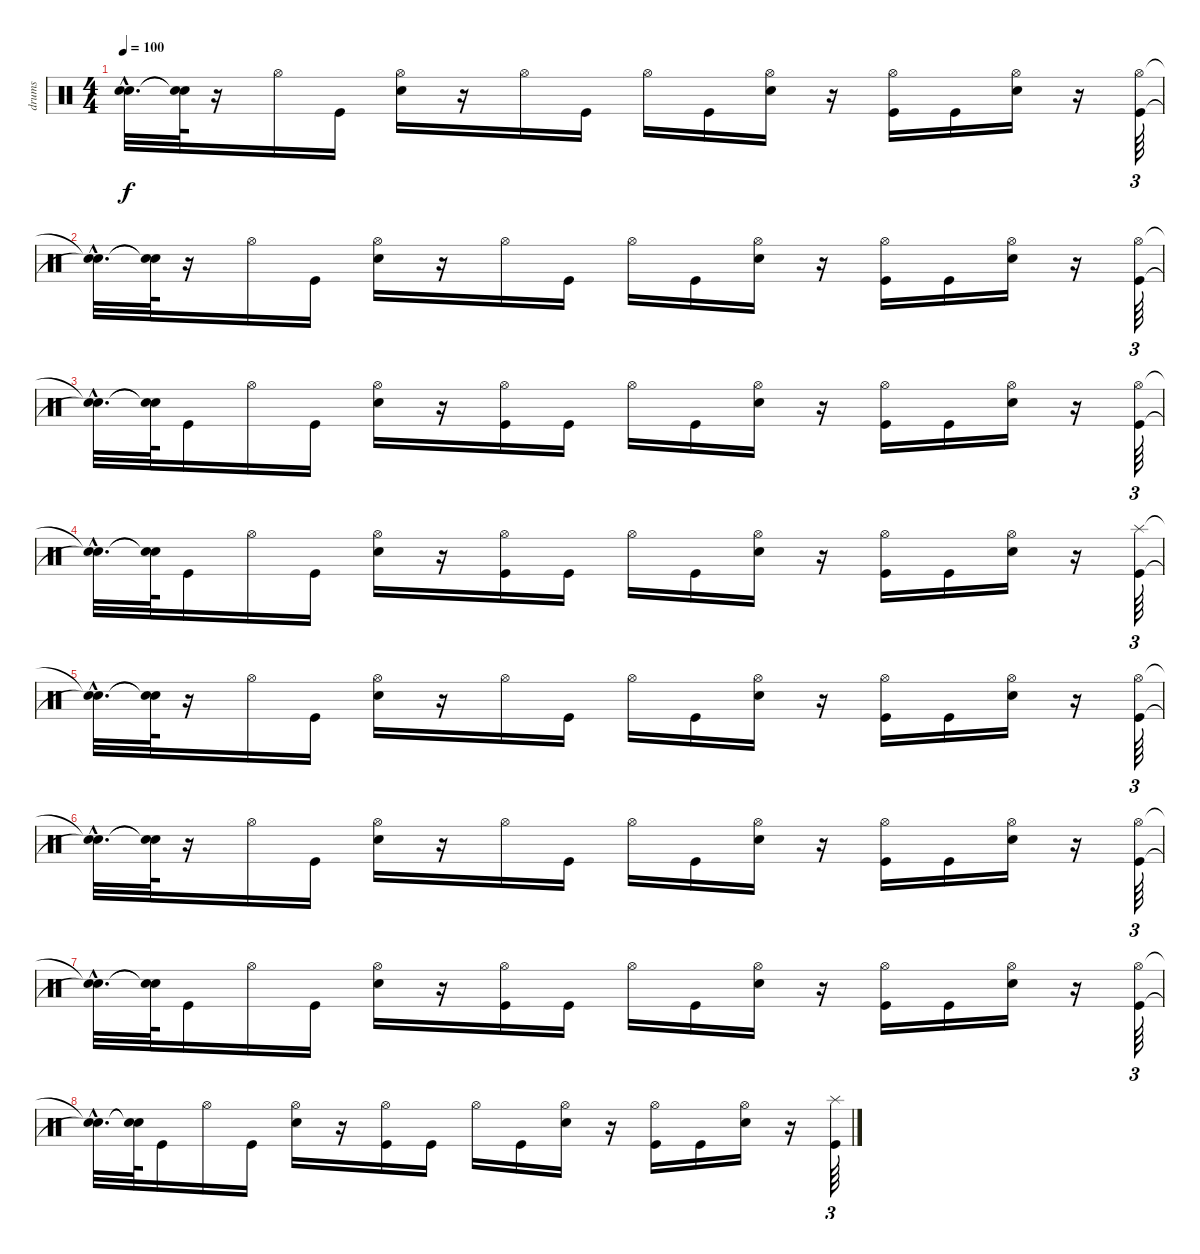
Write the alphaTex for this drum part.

\track ("drums" "drums") {instrument percussion}
\staff {score}
\articulation defaults
\ts (4 4)
\tempo 100
\clef neutral
\ks c
("Snare (hit)"{hac t} "Snare (hit)"{hac t}).32{d dy f} ("Snare (hit)"{t} "Snare (hit)"{t}).64 r.16 "Hi-Hat (open)".16 "Kick (hit)".16 ("Electric Snare (hit)" "Hi-Hat (open)").16 r.16 "Hi-Hat (open)".16 "Kick (hit)".16 "Hi-Hat (open)".16 "Kick (hit)".16 ("Hi-Hat (open)" "Electric Snare (hit)").16 r.16 ("Kick (hit)" "Hi-Hat (open)").16 "Kick (hit)".16 ("Hi-Hat (open)" "Electric Snare (hit)").16 r.16 ("Kick (hit)" "Hi-Hat (open)").64{tu (3 2)} |
("Snare (hit)"{hac t} "Snare (hit)"{hac t}).32{d} ("Snare (hit)"{t} "Snare (hit)"{t}).64 r.16 "Hi-Hat (open)".16 "Kick (hit)".16 ("Hi-Hat (open)" "Electric Snare (hit)").16 r.16 "Hi-Hat (open)".16 "Kick (hit)".16 "Hi-Hat (open)".16 "Kick (hit)".16 ("Hi-Hat (open)" "Electric Snare (hit)").16 r.16 ("Hi-Hat (open)" "Kick (hit)").16 "Kick (hit)".16 ("Hi-Hat (open)" "Electric Snare (hit)").16 r.16 ("Hi-Hat (open)" "Kick (hit)").64{tu (3 2)} |
("Snare (hit)"{hac t} "Snare (hit)"{hac t}).32{d} ("Snare (hit)"{t} "Snare (hit)"{t}).64 "Kick (hit)".16 "Hi-Hat (open)".16 "Kick (hit)".16 ("Electric Snare (hit)" "Hi-Hat (open)").16 r.16 ("Hi-Hat (open)" "Kick (hit)").16 "Kick (hit)".16 "Hi-Hat (open)".16 "Kick (hit)".16 ("Hi-Hat (open)" "Electric Snare (hit)").16 r.16 ("Kick (hit)" "Hi-Hat (open)").16 "Kick (hit)".16 ("Hi-Hat (open)" "Electric Snare (hit)").16 r.16 ("Kick (hit)" "Hi-Hat (open)").64{tu (3 2)} |
("Snare (hit)"{hac t} "Snare (hit)"{hac t}).32{d} ("Snare (hit)"{t} "Snare (hit)"{t}).64 "Kick (hit)".16 "Hi-Hat (open)".16 "Kick (hit)".16 ("Hi-Hat (open)" "Electric Snare (hit)").16 r.16 ("Hi-Hat (open)" "Kick (hit)").16 "Kick (hit)".16 "Hi-Hat (open)".16 "Kick (hit)".16 ("Hi-Hat (open)" "Electric Snare (hit)").16 r.16 ("Hi-Hat (open)" "Kick (hit)").16 "Kick (hit)".16 ("Hi-Hat (open)" "Electric Snare (hit)").16 r.16 ("Splash (hit)" "Kick (hit)").64{tu (3 2)} |
("Snare (hit)"{hac t} "Snare (hit)"{hac t}).32{d} ("Snare (hit)"{t} "Snare (hit)"{t}).64 r.16 "Hi-Hat (open)".16 "Kick (hit)".16 ("Electric Snare (hit)" "Hi-Hat (open)").16 r.16 "Hi-Hat (open)".16 "Kick (hit)".16 "Hi-Hat (open)".16 "Kick (hit)".16 ("Hi-Hat (open)" "Electric Snare (hit)").16 r.16 ("Kick (hit)" "Hi-Hat (open)").16 "Kick (hit)".16 ("Hi-Hat (open)" "Electric Snare (hit)").16 r.16 ("Kick (hit)" "Hi-Hat (open)").64{tu (3 2)} |
("Snare (hit)"{hac t} "Snare (hit)"{hac t}).32{d} ("Snare (hit)"{t} "Snare (hit)"{t}).64 r.16 "Hi-Hat (open)".16 "Kick (hit)".16 ("Hi-Hat (open)" "Electric Snare (hit)").16 r.16 "Hi-Hat (open)".16 "Kick (hit)".16 "Hi-Hat (open)".16 "Kick (hit)".16 ("Hi-Hat (open)" "Electric Snare (hit)").16 r.16 ("Hi-Hat (open)" "Kick (hit)").16 "Kick (hit)".16 ("Hi-Hat (open)" "Electric Snare (hit)").16 r.16 ("Hi-Hat (open)" "Kick (hit)").64{tu (3 2)} |
("Snare (hit)"{hac t} "Snare (hit)"{hac t}).32{d} ("Snare (hit)"{t} "Snare (hit)"{t}).64 "Kick (hit)".16 "Hi-Hat (open)".16 "Kick (hit)".16 ("Electric Snare (hit)" "Hi-Hat (open)").16 r.16 ("Hi-Hat (open)" "Kick (hit)").16 "Kick (hit)".16 "Hi-Hat (open)".16 "Kick (hit)".16 ("Hi-Hat (open)" "Electric Snare (hit)").16 r.16 ("Kick (hit)" "Hi-Hat (open)").16 "Kick (hit)".16 ("Hi-Hat (open)" "Electric Snare (hit)").16 r.16 ("Kick (hit)" "Hi-Hat (open)").64{tu (3 2)} |
("Snare (hit)"{hac t} "Snare (hit)"{hac t}).32{d} ("Snare (hit)"{t} "Snare (hit)"{t}).64 "Kick (hit)".16 "Hi-Hat (open)".16 "Kick (hit)".16 ("Hi-Hat (open)" "Electric Snare (hit)").16 r.16 ("Hi-Hat (open)" "Kick (hit)").16 "Kick (hit)".16 "Hi-Hat (open)".16 "Kick (hit)".16 ("Hi-Hat (open)" "Electric Snare (hit)").16 r.16 ("Hi-Hat (open)" "Kick (hit)").16 "Kick (hit)".16 ("Hi-Hat (open)" "Electric Snare (hit)").16 r.16 ("Splash (hit)" "Kick (hit)").64{tu (3 2)}
